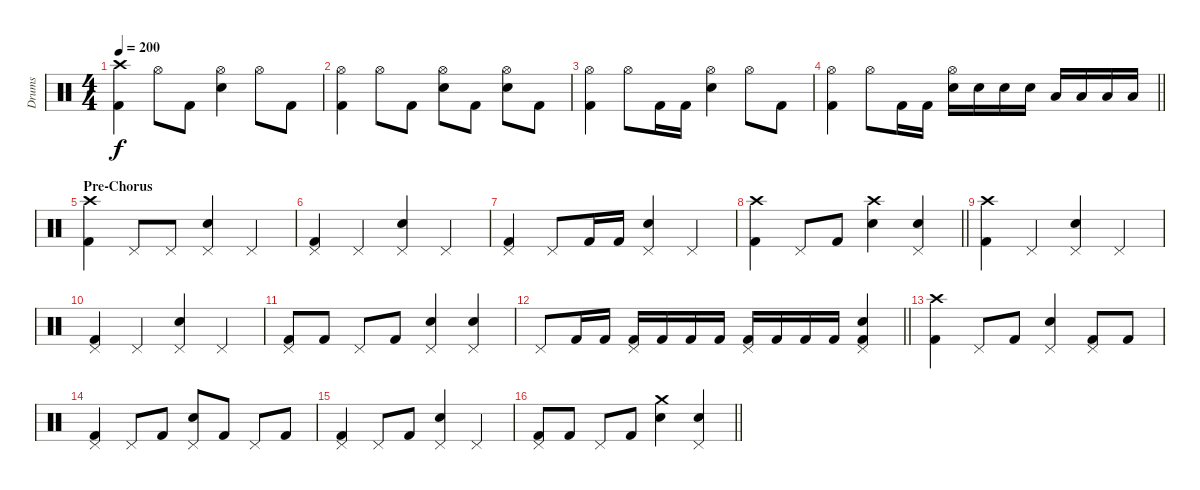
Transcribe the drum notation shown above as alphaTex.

\track ("Drums" "Drums") {instrument percussion}
\staff {score}
\articulation defaults
\ts (4 4)
\section ("" "")
\tempo 200
\clef neutral
\ks c
("Kick (hit) 2" "Crash high (hit)").4{dy f} "Hi-Hat (open)".8 "Kick (hit) 2".8 ("Snare (hit) 2" "Hi-Hat (open)").4 "Hi-Hat (open)".8 "Kick (hit) 2".8 |
("Kick (hit) 2" "Hi-Hat (open)").4 "Hi-Hat (open)".8 "Kick (hit) 2".8 ("Snare (hit) 2" "Hi-Hat (open)").8 "Kick (hit) 2".8 ("Snare (hit) 2" "Hi-Hat (open)").8 "Kick (hit) 2".8 |
("Kick (hit) 2" "Hi-Hat (open)").4 "Hi-Hat (open)".8 "Kick (hit) 2".16 "Kick (hit) 2".16 ("Snare (hit) 2" "Hi-Hat (open)").4 "Hi-Hat (open)".8 "Kick (hit) 2".8 |
\barLineRight lightlight
("Kick (hit) 2" "Hi-Hat (open)").4 "Hi-Hat (open)".8 "Kick (hit) 2".16 "Kick (hit) 2".16 ("Snare (hit) 2" "Hi-Hat (open)").16 "Snare (hit) 2".16 "Snare (hit) 2".16 "Snare (hit) 2".16 "Low Tom (hit)".16 "Low Tom (hit)".16 "Low Tom (hit)".16 "Low Tom (hit)".16 |
\section ("" "Pre-Chorus")
("Kick (hit) 2" "Crash high (hit)").4 "Pedal Hi-Hat (hit)".8 "Pedal Hi-Hat (hit)".8 ("Snare (hit) 2" "Pedal Hi-Hat (hit)").4 "Pedal Hi-Hat (hit)".4 |
("Kick (hit) 2" "Pedal Hi-Hat (hit)").4 "Pedal Hi-Hat (hit)".4 ("Snare (hit) 2" "Pedal Hi-Hat (hit)").4 "Pedal Hi-Hat (hit)".4 |
("Kick (hit) 2" "Pedal Hi-Hat (hit)").4 "Pedal Hi-Hat (hit)".8 "Kick (hit) 2".16 "Kick (hit) 2".16 ("Snare (hit) 2" "Pedal Hi-Hat (hit)").4 "Pedal Hi-Hat (hit)".4 |
\barLineRight lightlight
("Kick (hit) 2" "Crash high (hit)").4 "Pedal Hi-Hat (hit)".8 "Kick (hit) 2".8 ("Snare (hit) 2" "Crash high (hit)").4 ("Snare (hit) 2" "Pedal Hi-Hat (hit)").4 |
\section ("" "")
("Kick (hit) 2" "Crash high (hit)").4 "Pedal Hi-Hat (hit)".4 ("Snare (hit) 2" "Pedal Hi-Hat (hit)").4 "Pedal Hi-Hat (hit)".4 |
("Kick (hit) 2" "Pedal Hi-Hat (hit)").4 "Pedal Hi-Hat (hit)".4 ("Snare (hit) 2" "Pedal Hi-Hat (hit)").4 "Pedal Hi-Hat (hit)".4 |
("Kick (hit) 2" "Pedal Hi-Hat (hit)").8 "Kick (hit) 2".8 "Pedal Hi-Hat (hit)".8 "Kick (hit) 2".8 ("Snare (hit) 2" "Pedal Hi-Hat (hit)").4 ("Snare (hit) 2" "Pedal Hi-Hat (hit)").4 |
\barLineRight lightlight "Pedal Hi-Hat (hit)".8 "Kick (hit) 2".16 "Kick (hit) 2".16
("Kick (hit) 2" "Pedal Hi-Hat (hit)").16 "Kick (hit) 2".16 "Kick (hit) 2".16 "Kick (hit) 2".16 ("Kick (hit) 2" "Pedal Hi-Hat (hit)").16 "Kick (hit) 2".16 "Kick (hit) 2".16 "Kick (hit) 2".16 ("Kick (hit) 2" "Snare (hit) 2" "Pedal Hi-Hat (hit)").4 |
\section ("" "")
("Kick (hit) 2" "Crash high (hit)").4 "Pedal Hi-Hat (hit)".8 "Kick (hit) 2".8 ("Snare (hit) 2" "Pedal Hi-Hat (hit)").4 ("Kick (hit) 2" "Pedal Hi-Hat (hit)").8 "Kick (hit) 2".8 |
("Kick (hit) 2" "Pedal Hi-Hat (hit)").4 "Pedal Hi-Hat (hit)".8 "Kick (hit) 2".8 ("Snare (hit) 2" "Pedal Hi-Hat (hit)").8 "Kick (hit) 2".8 "Pedal Hi-Hat (hit)".8 "Kick (hit) 2".8 |
("Kick (hit) 2" "Pedal Hi-Hat (hit)").4 "Pedal Hi-Hat (hit)".8 "Kick (hit) 2".8 ("Snare (hit) 2" "Pedal Hi-Hat (hit)").4 "Pedal Hi-Hat (hit)".4 |
\barLineRight lightlight
("Kick (hit) 2" "Pedal Hi-Hat (hit)").8 "Kick (hit) 2".8 "Pedal Hi-Hat (hit)".8 "Kick (hit) 2".8 ("Snare (hit) 2" "Crash medium (hit)").4 ("Snare (hit) 2" "Pedal Hi-Hat (hit)").4
